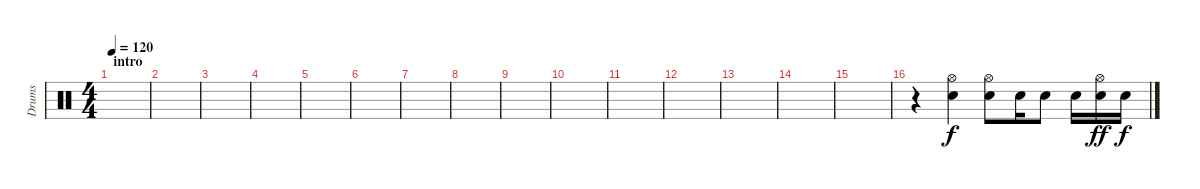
\track ("Drums" "Drums") {instrument percussion}
\staff {score}
\articulation defaults
\ts (4 4)
\section ("" "intro")
\tempo 120
\clef neutral
\ks c
|
|
|
|
|
|
|
|
|
|
|
|
|
|
|
r.4 ("Electric Snare (hit)" "Hi-Hat (open)").4 ("Electric Snare (hit)" "Hi-Hat (open)").8 "Electric Snare (hit)".16{dy f} "Electric Snare (hit)".8 "Electric Snare (hit)".16 ("Electric Snare (hit)" "Hi-Hat (open)").16{dy ff} "Electric Snare (hit)".16{dy f}
